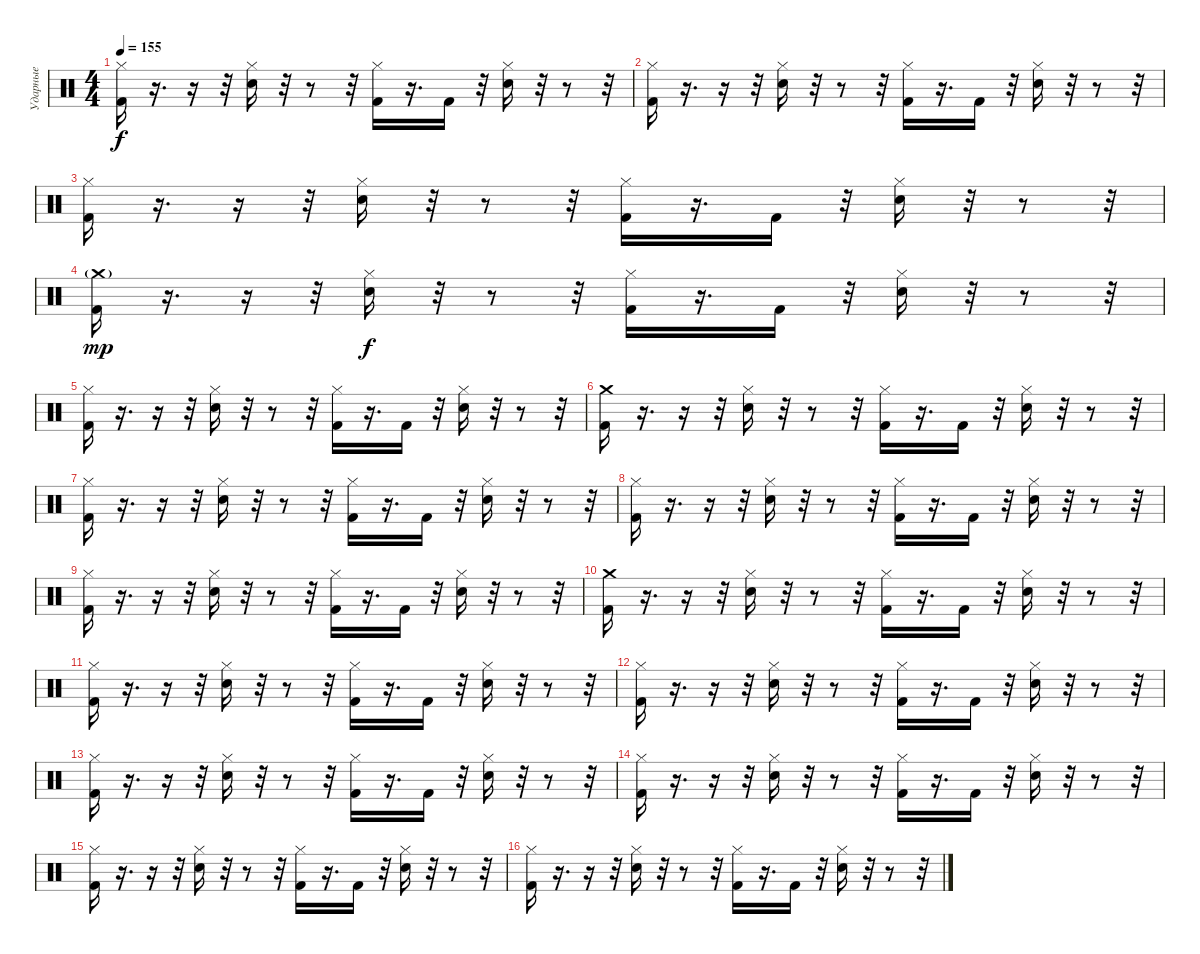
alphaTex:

\track ("Ударные" "Ударные") {instrument percussion}
\staff {score}
\articulation defaults
\ts (4 4)
\tempo 155
\clef neutral
\ks c
("Hi-Hat (closed)" "Kick (hit) 2").16{dy f} r.16{d} r.16 r.32 ("Snare (hit) 2" "Hi-Hat (closed)").16 r.32 r.8 r.32 ("Hi-Hat (closed)" "Kick (hit) 2").16 r.16{d} "Kick (hit) 2".16 r.32 ("Snare (hit) 2" "Hi-Hat (closed)").16 r.32 r.8 r.32 |
("Hi-Hat (closed)" "Kick (hit) 2").16 r.16{d} r.16 r.32 ("Snare (hit) 2" "Hi-Hat (closed)").16 r.32 r.8 r.32 ("Hi-Hat (closed)" "Kick (hit) 2").16 r.16{d} "Kick (hit) 2".16 r.32 ("Snare (hit) 2" "Hi-Hat (closed)").16 r.32 r.8 r.32 |
("Hi-Hat (closed)" "Kick (hit) 2").16 r.16{d} r.16 r.32 ("Snare (hit) 2" "Hi-Hat (closed)").16 r.32 r.8 r.32 ("Hi-Hat (closed)" "Kick (hit) 2").16 r.16{d} "Kick (hit) 2".16 r.32 ("Snare (hit) 2" "Hi-Hat (closed)").16 r.32 r.8 r.32 |
("Crash medium (hit)"{g} "Kick (hit) 2").16{dy mp} r.16{d} r.16 r.32 ("Snare (hit) 2" "Hi-Hat (closed)").16{dy f} r.32 r.8 r.32 ("Hi-Hat (closed)" "Kick (hit) 2").16 r.16{d} "Kick (hit) 2".16 r.32 ("Snare (hit) 2" "Hi-Hat (closed)").16 r.32 r.8 r.32 |
("Hi-Hat (closed)" "Kick (hit) 2").16 r.16{d} r.16 r.32 ("Snare (hit) 2" "Hi-Hat (closed)").16 r.32 r.8 r.32 ("Hi-Hat (closed)" "Kick (hit) 2").16 r.16{d} "Kick (hit) 2".16 r.32 ("Snare (hit) 2" "Hi-Hat (closed)").16 r.32 r.8 r.32 |
("Crash medium (hit)" "Kick (hit) 2").16 r.16{d} r.16 r.32 ("Snare (hit) 2" "Hi-Hat (closed)").16 r.32 r.8 r.32 ("Hi-Hat (closed)" "Kick (hit) 2").16 r.16{d} "Kick (hit) 2".16 r.32 ("Snare (hit) 2" "Hi-Hat (closed)").16 r.32 r.8 r.32 |
("Hi-Hat (closed)" "Kick (hit) 2").16 r.16{d} r.16 r.32 ("Snare (hit) 2" "Hi-Hat (closed)").16 r.32 r.8 r.32 ("Hi-Hat (closed)" "Kick (hit) 2").16 r.16{d} "Kick (hit) 2".16 r.32 ("Snare (hit) 2" "Hi-Hat (closed)").16 r.32 r.8 r.32 |
("Hi-Hat (closed)" "Kick (hit) 2").16 r.16{d} r.16 r.32 ("Snare (hit) 2" "Hi-Hat (closed)").16 r.32 r.8 r.32 ("Hi-Hat (closed)" "Kick (hit) 2").16 r.16{d} "Kick (hit) 2".16 r.32 ("Snare (hit) 2" "Hi-Hat (closed)").16 r.32 r.8 r.32 |
("Hi-Hat (closed)" "Kick (hit) 2").16 r.16{d} r.16 r.32 ("Snare (hit) 2" "Hi-Hat (closed)").16 r.32 r.8 r.32 ("Hi-Hat (closed)" "Kick (hit) 2").16 r.16{d} "Kick (hit) 2".16 r.32 ("Snare (hit) 2" "Hi-Hat (closed)").16 r.32 r.8 r.32 |
("Crash medium (hit)" "Kick (hit) 2").16 r.16{d} r.16 r.32 ("Snare (hit) 2" "Hi-Hat (closed)").16 r.32 r.8 r.32 ("Hi-Hat (closed)" "Kick (hit) 2").16 r.16{d} "Kick (hit) 2".16 r.32 ("Snare (hit) 2" "Hi-Hat (closed)").16 r.32 r.8 r.32 |
("Hi-Hat (closed)" "Kick (hit) 2").16 r.16{d} r.16 r.32 ("Snare (hit) 2" "Hi-Hat (closed)").16 r.32 r.8 r.32 ("Hi-Hat (closed)" "Kick (hit) 2").16 r.16{d} "Kick (hit) 2".16 r.32 ("Snare (hit) 2" "Hi-Hat (closed)").16 r.32 r.8 r.32 |
("Hi-Hat (closed)" "Kick (hit) 2").16 r.16{d} r.16 r.32 ("Snare (hit) 2" "Hi-Hat (closed)").16 r.32 r.8 r.32 ("Hi-Hat (closed)" "Kick (hit) 2").16 r.16{d} "Kick (hit) 2".16 r.32 ("Snare (hit) 2" "Hi-Hat (closed)").16 r.32 r.8 r.32 |
("Hi-Hat (closed)" "Kick (hit) 2").16 r.16{d} r.16 r.32 ("Snare (hit) 2" "Hi-Hat (closed)").16 r.32 r.8 r.32 ("Hi-Hat (closed)" "Kick (hit) 2").16 r.16{d} "Kick (hit) 2".16 r.32 ("Snare (hit) 2" "Hi-Hat (closed)").16 r.32 r.8 r.32 |
("Hi-Hat (closed)" "Kick (hit) 2").16 r.16{d} r.16 r.32 ("Snare (hit) 2" "Hi-Hat (closed)").16 r.32 r.8 r.32 ("Hi-Hat (closed)" "Kick (hit) 2").16 r.16{d} "Kick (hit) 2".16 r.32 ("Snare (hit) 2" "Hi-Hat (closed)").16 r.32 r.8 r.32 |
("Hi-Hat (closed)" "Kick (hit) 2").16 r.16{d} r.16 r.32 ("Snare (hit) 2" "Hi-Hat (closed)").16 r.32 r.8 r.32 ("Hi-Hat (closed)" "Kick (hit) 2").16 r.16{d} "Kick (hit) 2".16 r.32 ("Snare (hit) 2" "Hi-Hat (closed)").16 r.32 r.8 r.32 |
("Hi-Hat (closed)" "Kick (hit) 2").16 r.16{d} r.16 r.32 ("Snare (hit) 2" "Hi-Hat (closed)").16 r.32 r.8 r.32 ("Hi-Hat (closed)" "Kick (hit) 2").16 r.16{d} "Kick (hit) 2".16 r.32 ("Snare (hit) 2" "Hi-Hat (closed)").16 r.32 r.8 r.32
